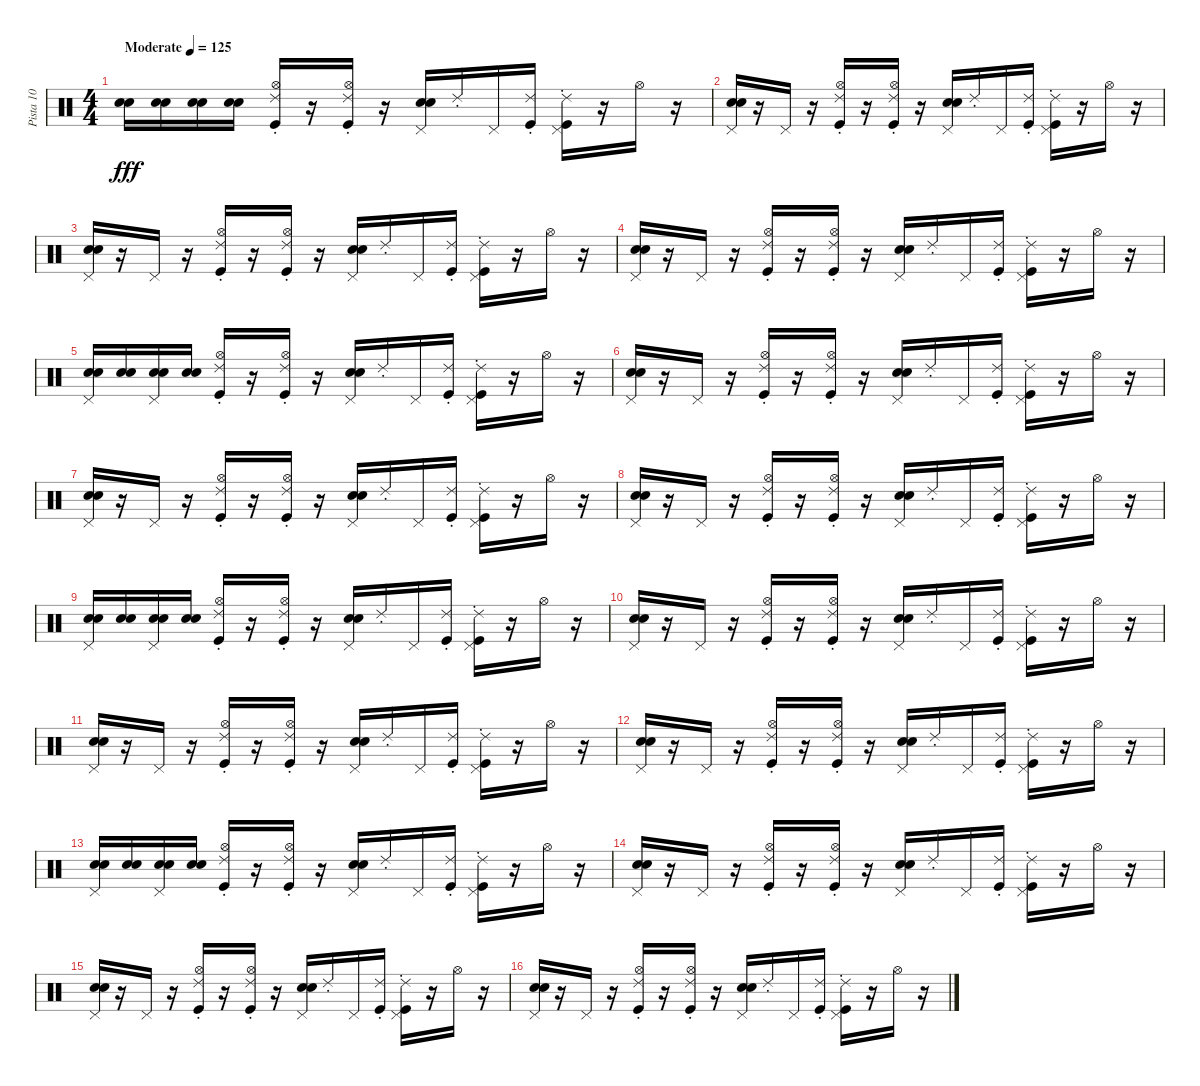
\track ("Pista 10" "Pista 10") {instrument percussion}
\staff {score}
\articulation defaults
\ts (4 4)
\tempo (125 "Moderate")
\clef neutral
\ks c
("Hand Clap (hit)" "Electric Snare (hit)").16{dy fff} ("Electric Snare (hit)" "Hand Clap (hit)").16 ("Hand Clap (hit)" "Electric Snare (hit)").16 ("Hand Clap (hit)" "Electric Snare (hit)").16 ("Ride (choke) 2" "Hi-Hat (open)" "Kick (hit)").16 r.16 ("Ride (choke) 2" "Hi-Hat (open)" "Kick (hit)").16 r.16 ("Pedal Hi-Hat (hit)" "Electric Snare (hit)" "Hand Clap (hit)").16 "Ride (choke) 2".16 "Pedal Hi-Hat (hit)".16 ("Kick (hit)" "Ride (choke) 2").16 ("Ride (choke) 2" "Pedal Hi-Hat (hit)" "Kick (hit)").16 r.16 "Hi-Hat (open)".16 r.16 |
("Pedal Hi-Hat (hit)" "Hand Clap (hit)" "Electric Snare (hit)").16 r.16 "Pedal Hi-Hat (hit)".16 r.16 ("Kick (hit)" "Hi-Hat (open)" "Ride (choke) 2").16 r.16 ("Hi-Hat (open)" "Kick (hit)" "Ride (choke) 2").16 r.16 ("Electric Snare (hit)" "Pedal Hi-Hat (hit)" "Hand Clap (hit)").16 "Ride (choke) 2".16 "Pedal Hi-Hat (hit)".16 ("Kick (hit)" "Ride (choke) 2").16 ("Pedal Hi-Hat (hit)" "Kick (hit)" "Ride (choke) 2").16 r.16 "Hi-Hat (open)".16 r.16 |
("Electric Snare (hit)" "Hand Clap (hit)" "Pedal Hi-Hat (hit)").16 r.16 "Pedal Hi-Hat (hit)".16 r.16 ("Hi-Hat (open)" "Kick (hit)" "Ride (choke) 2").16 r.16 ("Hi-Hat (open)" "Kick (hit)" "Ride (choke) 2").16 r.16 ("Pedal Hi-Hat (hit)" "Electric Snare (hit)" "Hand Clap (hit)").16 "Ride (choke) 2".16 "Pedal Hi-Hat (hit)".16 ("Kick (hit)" "Ride (choke) 2").16 ("Pedal Hi-Hat (hit)" "Kick (hit)" "Ride (choke) 2").16 r.16 "Hi-Hat (open)".16 r.16 |
("Pedal Hi-Hat (hit)" "Hand Clap (hit)" "Electric Snare (hit)").16 r.16 "Pedal Hi-Hat (hit)".16 r.16 ("Kick (hit)" "Hi-Hat (open)" "Ride (choke) 2").16 r.16 ("Kick (hit)" "Hi-Hat (open)" "Ride (choke) 2").16 r.16 ("Electric Snare (hit)" "Hand Clap (hit)" "Pedal Hi-Hat (hit)").16 "Ride (choke) 2".16 "Pedal Hi-Hat (hit)".16 ("Kick (hit)" "Ride (choke) 2").16 ("Kick (hit)" "Pedal Hi-Hat (hit)" "Ride (choke) 2").16 r.16 "Hi-Hat (open)".16 r.16 |
("Pedal Hi-Hat (hit)" "Hand Clap (hit)" "Electric Snare (hit)").16 ("Electric Snare (hit)" "Hand Clap (hit)").16 ("Pedal Hi-Hat (hit)" "Hand Clap (hit)" "Electric Snare (hit)").16 ("Hand Clap (hit)" "Electric Snare (hit)").16 ("Hi-Hat (open)" "Kick (hit)" "Ride (choke) 2").16 r.16 ("Hi-Hat (open)" "Kick (hit)" "Ride (choke) 2").16 r.16 ("Pedal Hi-Hat (hit)" "Electric Snare (hit)" "Hand Clap (hit)").16 "Ride (choke) 2".16 "Pedal Hi-Hat (hit)".16 ("Kick (hit)" "Ride (choke) 2").16 ("Pedal Hi-Hat (hit)" "Kick (hit)" "Ride (choke) 2").16 r.16 "Hi-Hat (open)".16 r.16 |
("Pedal Hi-Hat (hit)" "Hand Clap (hit)" "Electric Snare (hit)").16 r.16 "Pedal Hi-Hat (hit)".16 r.16 ("Kick (hit)" "Hi-Hat (open)" "Ride (choke) 2").16 r.16 ("Hi-Hat (open)" "Kick (hit)" "Ride (choke) 2").16 r.16 ("Electric Snare (hit)" "Pedal Hi-Hat (hit)" "Hand Clap (hit)").16 "Ride (choke) 2".16 "Pedal Hi-Hat (hit)".16 ("Kick (hit)" "Ride (choke) 2").16 ("Pedal Hi-Hat (hit)" "Kick (hit)" "Ride (choke) 2").16 r.16 "Hi-Hat (open)".16 r.16 |
("Electric Snare (hit)" "Hand Clap (hit)" "Pedal Hi-Hat (hit)").16 r.16 "Pedal Hi-Hat (hit)".16 r.16 ("Hi-Hat (open)" "Ride (choke) 2" "Kick (hit)").16 r.16 ("Hi-Hat (open)" "Ride (choke) 2" "Kick (hit)").16 r.16 ("Pedal Hi-Hat (hit)" "Electric Snare (hit)" "Hand Clap (hit)").16 "Ride (choke) 2".16 "Pedal Hi-Hat (hit)".16 ("Ride (choke) 2" "Kick (hit)").16 ("Pedal Hi-Hat (hit)" "Ride (choke) 2" "Kick (hit)").16 r.16 "Hi-Hat (open)".16 r.16 |
("Pedal Hi-Hat (hit)" "Hand Clap (hit)" "Electric Snare (hit)").16 r.16 "Pedal Hi-Hat (hit)".16 r.16 ("Kick (hit)" "Hi-Hat (open)" "Ride (choke) 2").16 r.16 ("Kick (hit)" "Hi-Hat (open)" "Ride (choke) 2").16 r.16 ("Electric Snare (hit)" "Hand Clap (hit)" "Pedal Hi-Hat (hit)").16 "Ride (choke) 2".16 "Pedal Hi-Hat (hit)".16 ("Kick (hit)" "Ride (choke) 2").16 ("Kick (hit)" "Pedal Hi-Hat (hit)" "Ride (choke) 2").16 r.16 "Hi-Hat (open)".16 r.16 |
("Pedal Hi-Hat (hit)" "Hand Clap (hit)" "Electric Snare (hit)").16 ("Electric Snare (hit)" "Hand Clap (hit)").16 ("Pedal Hi-Hat (hit)" "Hand Clap (hit)" "Electric Snare (hit)").16 ("Hand Clap (hit)" "Electric Snare (hit)").16 ("Hi-Hat (open)" "Kick (hit)" "Ride (choke) 2").16 r.16 ("Hi-Hat (open)" "Kick (hit)" "Ride (choke) 2").16 r.16 ("Pedal Hi-Hat (hit)" "Electric Snare (hit)" "Hand Clap (hit)").16 "Ride (choke) 2".16 "Pedal Hi-Hat (hit)".16 ("Kick (hit)" "Ride (choke) 2").16 ("Pedal Hi-Hat (hit)" "Kick (hit)" "Ride (choke) 2").16 r.16 "Hi-Hat (open)".16 r.16 |
("Pedal Hi-Hat (hit)" "Hand Clap (hit)" "Electric Snare (hit)").16 r.16 "Pedal Hi-Hat (hit)".16 r.16 ("Kick (hit)" "Hi-Hat (open)" "Ride (choke) 2").16 r.16 ("Hi-Hat (open)" "Kick (hit)" "Ride (choke) 2").16 r.16 ("Electric Snare (hit)" "Pedal Hi-Hat (hit)" "Hand Clap (hit)").16 "Ride (choke) 2".16 "Pedal Hi-Hat (hit)".16 ("Kick (hit)" "Ride (choke) 2").16 ("Pedal Hi-Hat (hit)" "Kick (hit)" "Ride (choke) 2").16 r.16 "Hi-Hat (open)".16 r.16 |
("Electric Snare (hit)" "Hand Clap (hit)" "Pedal Hi-Hat (hit)").16 r.16 "Pedal Hi-Hat (hit)".16 r.16 ("Kick (hit)" "Hi-Hat (open)" "Ride (choke) 2").16 r.16 ("Kick (hit)" "Hi-Hat (open)" "Ride (choke) 2").16 r.16 ("Electric Snare (hit)" "Hand Clap (hit)" "Pedal Hi-Hat (hit)").16 "Ride (choke) 2".16 "Pedal Hi-Hat (hit)".16 ("Kick (hit)" "Ride (choke) 2").16 ("Kick (hit)" "Pedal Hi-Hat (hit)" "Ride (choke) 2").16 r.16 "Hi-Hat (open)".16 r.16 |
("Hand Clap (hit)" "Electric Snare (hit)" "Pedal Hi-Hat (hit)").16 r.16 "Pedal Hi-Hat (hit)".16 r.16 ("Kick (hit)" "Ride (choke) 2" "Hi-Hat (open)").16 r.16 ("Kick (hit)" "Ride (choke) 2" "Hi-Hat (open)").16 r.16 ("Electric Snare (hit)" "Hand Clap (hit)" "Pedal Hi-Hat (hit)").16 "Ride (choke) 2".16 "Pedal Hi-Hat (hit)".16 ("Kick (hit)" "Ride (choke) 2").16 ("Kick (hit)" "Ride (choke) 2" "Pedal Hi-Hat (hit)").16 r.16 "Hi-Hat (open)".16 r.16 |
("Pedal Hi-Hat (hit)" "Hand Clap (hit)" "Electric Snare (hit)").16 ("Electric Snare (hit)" "Hand Clap (hit)").16 ("Pedal Hi-Hat (hit)" "Hand Clap (hit)" "Electric Snare (hit)").16 ("Hand Clap (hit)" "Electric Snare (hit)").16 ("Ride (choke) 2" "Hi-Hat (open)" "Kick (hit)").16 r.16 ("Ride (choke) 2" "Hi-Hat (open)" "Kick (hit)").16 r.16 ("Pedal Hi-Hat (hit)" "Electric Snare (hit)" "Hand Clap (hit)").16 "Ride (choke) 2".16 "Pedal Hi-Hat (hit)".16 ("Kick (hit)" "Ride (choke) 2").16 ("Ride (choke) 2" "Pedal Hi-Hat (hit)" "Kick (hit)").16 r.16 "Hi-Hat (open)".16 r.16 |
("Pedal Hi-Hat (hit)" "Hand Clap (hit)" "Electric Snare (hit)").16 r.16 "Pedal Hi-Hat (hit)".16 r.16 ("Kick (hit)" "Hi-Hat (open)" "Ride (choke) 2").16 r.16 ("Hi-Hat (open)" "Kick (hit)" "Ride (choke) 2").16 r.16 ("Electric Snare (hit)" "Pedal Hi-Hat (hit)" "Hand Clap (hit)").16 "Ride (choke) 2".16 "Pedal Hi-Hat (hit)".16 ("Kick (hit)" "Ride (choke) 2").16 ("Pedal Hi-Hat (hit)" "Kick (hit)" "Ride (choke) 2").16 r.16 "Hi-Hat (open)".16 r.16 |
("Electric Snare (hit)" "Hand Clap (hit)" "Pedal Hi-Hat (hit)").16 r.16 "Pedal Hi-Hat (hit)".16 r.16 ("Ride (choke) 2" "Kick (hit)" "Hi-Hat (open)").16 r.16 ("Ride (choke) 2" "Kick (hit)" "Hi-Hat (open)").16 r.16 ("Electric Snare (hit)" "Hand Clap (hit)" "Pedal Hi-Hat (hit)").16 "Ride (choke) 2".16 "Pedal Hi-Hat (hit)".16 ("Ride (choke) 2" "Kick (hit)").16 ("Ride (choke) 2" "Kick (hit)" "Pedal Hi-Hat (hit)").16 r.16 "Hi-Hat (open)".16 r.16 |
("Hand Clap (hit)" "Electric Snare (hit)" "Pedal Hi-Hat (hit)").16 r.16 "Pedal Hi-Hat (hit)".16 r.16 ("Hi-Hat (open)" "Kick (hit)" "Ride (choke) 2").16 r.16 ("Hi-Hat (open)" "Kick (hit)" "Ride (choke) 2").16 r.16 ("Pedal Hi-Hat (hit)" "Electric Snare (hit)" "Hand Clap (hit)").16 "Ride (choke) 2".16 "Pedal Hi-Hat (hit)".16 ("Kick (hit)" "Ride (choke) 2").16 ("Pedal Hi-Hat (hit)" "Kick (hit)" "Ride (choke) 2").16 r.16 "Hi-Hat (open)".16 r.16
